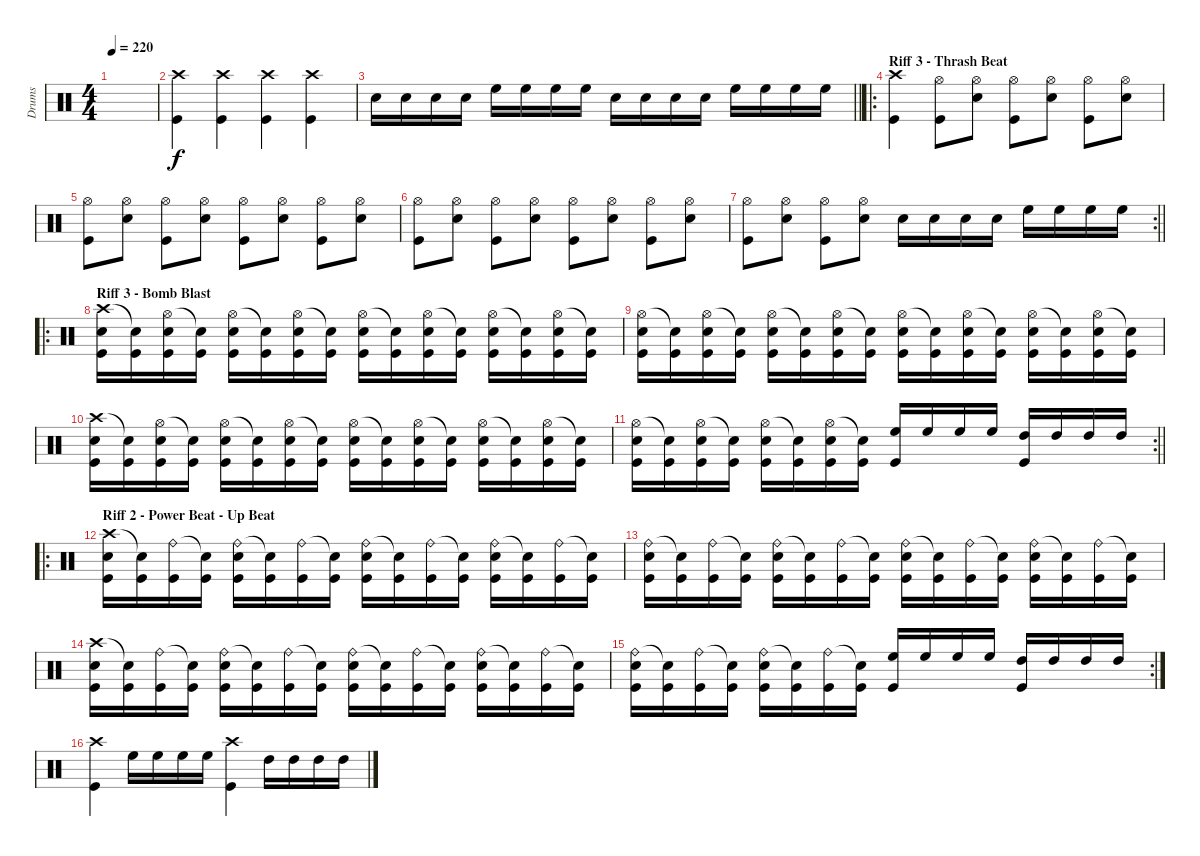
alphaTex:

\track ("Drums" "Drums") {instrument percussion}
\staff {score}
\articulation defaults
\ts (4 4)
\tempo 220
\clef neutral
\ks c
|
("Crash high (hit)" "Kick (hit)").4 ("Crash high (hit)" "Kick (hit)").4 ("Crash high (hit)" "Kick (hit)").4 ("Crash high (hit)" "Kick (hit)").4 |
\barLineRight lightlight "Electric Snare (hit)".16 "Electric Snare (hit)".16 "Electric Snare (hit)".16 "Electric Snare (hit)".16 "High Floor Tom (hit)".16 "High Floor Tom (hit)".16 "High Floor Tom (hit)".16 "High Floor Tom (hit)".16 "Electric Snare (hit)".16 "Electric Snare (hit)".16 "Electric Snare (hit)".16 "Electric Snare (hit)".16 "High Floor Tom (hit)".16 "High Floor Tom (hit)".16 "High Floor Tom (hit)".16 "High Floor Tom (hit)".16
|
\ro
\section ("" "Riff 3 - Thrash Beat ")
("Crash high (hit)" "Kick (hit)").4 ("Hi-Hat (open)" "Kick (hit)").8 ("Hi-Hat (open)" "Electric Snare (hit)").8 ("Hi-Hat (open)" "Kick (hit)").8 ("Hi-Hat (open)" "Electric Snare (hit)").8 ("Hi-Hat (open)" "Kick (hit)").8 ("Hi-Hat (open)" "Electric Snare (hit)").8 |
("Hi-Hat (open)" "Kick (hit)").8 ("Hi-Hat (open)" "Electric Snare (hit)").8 ("Hi-Hat (open)" "Kick (hit)").8 ("Hi-Hat (open)" "Electric Snare (hit)").8 ("Hi-Hat (open)" "Kick (hit)").8 ("Hi-Hat (open)" "Electric Snare (hit)").8 ("Hi-Hat (open)" "Kick (hit)").8 ("Hi-Hat (open)" "Electric Snare (hit)").8 |
("Hi-Hat (open)" "Kick (hit)").8 ("Hi-Hat (open)" "Electric Snare (hit)").8 ("Hi-Hat (open)" "Kick (hit)").8 ("Hi-Hat (open)" "Electric Snare (hit)").8 ("Hi-Hat (open)" "Kick (hit)").8 ("Hi-Hat (open)" "Electric Snare (hit)").8 ("Hi-Hat (open)" "Kick (hit)").8 ("Hi-Hat (open)" "Electric Snare (hit)").8 |
\rc 2
\barLineRight lightlight
("Hi-Hat (open)" "Kick (hit)").8 ("Hi-Hat (open)" "Electric Snare (hit)").8 ("Hi-Hat (open)" "Kick (hit)").8 ("Hi-Hat (open)" "Electric Snare (hit)").8 "Electric Snare (hit)".16 "Electric Snare (hit)".16 "Electric Snare (hit)".16 "Electric Snare (hit)".16 "High Floor Tom (hit)".16 "High Floor Tom (hit)".16 "High Floor Tom (hit)".16 "High Floor Tom (hit)".16 |
\ro
\section ("" "Riff 3 - Bomb Blast")
("Crash high (hit)" "Electric Snare (hit)" "Kick (hit)").16 ("Snare (hit)"{t} "Kick (hit)").16 ("Hi-Hat (open)" "Electric Snare (hit)" "Kick (hit)").16 ("Snare (hit)"{t} "Kick (hit)").16 ("Hi-Hat (open)" "Electric Snare (hit)" "Kick (hit)").16 ("Snare (hit)"{t} "Kick (hit)").16 ("Hi-Hat (open)" "Electric Snare (hit)" "Kick (hit)").16 ("Snare (hit)"{t} "Kick (hit)").16 ("Hi-Hat (open)" "Electric Snare (hit)" "Kick (hit)").16 ("Snare (hit)"{t} "Kick (hit)").16 ("Hi-Hat (open)" "Electric Snare (hit)" "Kick (hit)").16 ("Snare (hit)"{t} "Kick (hit)").16 ("Hi-Hat (open)" "Electric Snare (hit)" "Kick (hit)").16 ("Snare (hit)"{t} "Kick (hit)").16 ("Hi-Hat (open)" "Electric Snare (hit)" "Kick (hit)").16 ("Snare (hit)"{t} "Kick (hit)").16 |
("Hi-Hat (open)" "Electric Snare (hit)" "Kick (hit)").16 ("Snare (hit)"{t} "Kick (hit)").16 ("Hi-Hat (open)" "Electric Snare (hit)" "Kick (hit)").16 ("Snare (hit)"{t} "Kick (hit)").16 ("Hi-Hat (open)" "Electric Snare (hit)" "Kick (hit)").16 ("Snare (hit)"{t} "Kick (hit)").16 ("Hi-Hat (open)" "Electric Snare (hit)" "Kick (hit)").16 ("Snare (hit)"{t} "Kick (hit)").16 ("Hi-Hat (open)" "Electric Snare (hit)" "Kick (hit)").16 ("Snare (hit)"{t} "Kick (hit)").16 ("Hi-Hat (open)" "Electric Snare (hit)" "Kick (hit)").16 ("Snare (hit)"{t} "Kick (hit)").16 ("Hi-Hat (open)" "Electric Snare (hit)" "Kick (hit)").16 ("Snare (hit)"{t} "Kick (hit)").16 ("Hi-Hat (open)" "Electric Snare (hit)" "Kick (hit)").16 ("Snare (hit)"{t} "Kick (hit)").16 |
("Crash high (hit)" "Electric Snare (hit)" "Kick (hit)").16 ("Snare (hit)"{t} "Kick (hit)").16 ("Hi-Hat (open)" "Electric Snare (hit)" "Kick (hit)").16 ("Snare (hit)"{t} "Kick (hit)").16 ("Hi-Hat (open)" "Electric Snare (hit)" "Kick (hit)").16 ("Snare (hit)"{t} "Kick (hit)").16 ("Hi-Hat (open)" "Electric Snare (hit)" "Kick (hit)").16 ("Snare (hit)"{t} "Kick (hit)").16 ("Hi-Hat (open)" "Electric Snare (hit)" "Kick (hit)").16 ("Snare (hit)"{t} "Kick (hit)").16 ("Hi-Hat (open)" "Electric Snare (hit)" "Kick (hit)").16 ("Snare (hit)"{t} "Kick (hit)").16 ("Hi-Hat (open)" "Electric Snare (hit)" "Kick (hit)").16 ("Snare (hit)"{t} "Kick (hit)").16 ("Hi-Hat (open)" "Electric Snare (hit)" "Kick (hit)").16 ("Snare (hit)"{t} "Kick (hit)").16 |
\rc 2
\barLineRight lightlight
("Hi-Hat (open)" "Electric Snare (hit)" "Kick (hit)").16 ("Snare (hit)"{t} "Kick (hit)").16 ("Hi-Hat (open)" "Electric Snare (hit)" "Kick (hit)").16 ("Snare (hit)"{t} "Kick (hit)").16 ("Hi-Hat (open)" "Electric Snare (hit)" "Kick (hit)").16 ("Snare (hit)"{t} "Kick (hit)").16 ("Hi-Hat (open)" "Electric Snare (hit)" "Kick (hit)").16 ("Snare (hit)"{t} "Kick (hit)").16 ("High Floor Tom (hit)" "Kick (hit)").16 "High Floor Tom (hit)".16 "High Floor Tom (hit)".16 "High Floor Tom (hit)".16 ("High Tom (hit)" "Kick (hit)").16 "High Tom (hit)".16 "High Tom (hit)".16 "High Tom (hit)".16 |
\ro
\section ("" "Riff 2 - Power Beat - Up Beat")
("Crash high (hit)" "Electric Snare (hit)" "Kick (hit)").16 ("Snare (hit)"{t} "Kick (hit)").16 ("Ride (bell)" "Kick (hit)").16 ("Snare (hit)"{t} "Kick (hit)").16 ("Ride (bell)" "Electric Snare (hit)" "Kick (hit)").16 ("Snare (hit)"{t} "Kick (hit)").16 ("Ride (bell)" "Kick (hit)").16 ("Snare (hit)"{t} "Kick (hit)").16 ("Ride (bell)" "Electric Snare (hit)" "Kick (hit)").16 ("Snare (hit)"{t} "Kick (hit)").16 ("Ride (bell)" "Kick (hit)").16 ("Snare (hit)"{t} "Kick (hit)").16 ("Ride (bell)" "Electric Snare (hit)" "Kick (hit)").16 ("Snare (hit)"{t} "Kick (hit)").16 ("Ride (bell)" "Kick (hit)").16 ("Snare (hit)"{t} "Kick (hit)").16 |
("Ride (bell)" "Electric Snare (hit)" "Kick (hit)").16 ("Snare (hit)"{t} "Kick (hit)").16 ("Ride (bell)" "Kick (hit)").16 ("Snare (hit)"{t} "Kick (hit)").16 ("Ride (bell)" "Electric Snare (hit)" "Kick (hit)").16 ("Snare (hit)"{t} "Kick (hit)").16 ("Ride (bell)" "Kick (hit)").16 ("Snare (hit)"{t} "Kick (hit)").16 ("Ride (bell)" "Electric Snare (hit)" "Kick (hit)").16 ("Snare (hit)"{t} "Kick (hit)").16 ("Ride (bell)" "Kick (hit)").16 ("Snare (hit)"{t} "Kick (hit)").16 ("Ride (bell)" "Electric Snare (hit)" "Kick (hit)").16 ("Snare (hit)"{t} "Kick (hit)").16 ("Ride (bell)" "Kick (hit)").16 ("Snare (hit)"{t} "Kick (hit)").16 |
("Crash high (hit)" "Electric Snare (hit)" "Kick (hit)").16 ("Snare (hit)"{t} "Kick (hit)").16 ("Ride (bell)" "Kick (hit)").16 ("Snare (hit)"{t} "Kick (hit)").16 ("Ride (bell)" "Electric Snare (hit)" "Kick (hit)").16 ("Snare (hit)"{t} "Kick (hit)").16 ("Ride (bell)" "Kick (hit)").16 ("Snare (hit)"{t} "Kick (hit)").16 ("Ride (bell)" "Electric Snare (hit)" "Kick (hit)").16 ("Snare (hit)"{t} "Kick (hit)").16 ("Ride (bell)" "Kick (hit)").16 ("Snare (hit)"{t} "Kick (hit)").16 ("Ride (bell)" "Electric Snare (hit)" "Kick (hit)").16 ("Snare (hit)"{t} "Kick (hit)").16 ("Ride (bell)" "Kick (hit)").16 ("Snare (hit)"{t} "Kick (hit)").16 |
\rc 2
("Ride (bell)" "Electric Snare (hit)" "Kick (hit)").16 ("Snare (hit)"{t} "Kick (hit)").16 ("Ride (bell)" "Kick (hit)").16 ("Snare (hit)"{t} "Kick (hit)").16 ("Ride (bell)" "Electric Snare (hit)" "Kick (hit)").16 ("Snare (hit)"{t} "Kick (hit)").16 ("Ride (bell)" "Kick (hit)").16 ("Snare (hit)"{t} "Kick (hit)").16 ("High Floor Tom (hit)" "Kick (hit)").16 "High Floor Tom (hit)".16 "High Floor Tom (hit)".16 "High Floor Tom (hit)".16 ("High Tom (hit)" "Kick (hit)").16 "High Tom (hit)".16 "High Tom (hit)".16 "High Tom (hit)".16 |
("Crash high (hit)" "Kick (hit)").4 "High Floor Tom (hit)".16 "High Floor Tom (hit)".16 "High Floor Tom (hit)".16 "High Floor Tom (hit)".16 ("Crash high (hit)" "Kick (hit)").4 "High Tom (hit)".16 "High Tom (hit)".16 "High Tom (hit)".16 "High Tom (hit)".16
